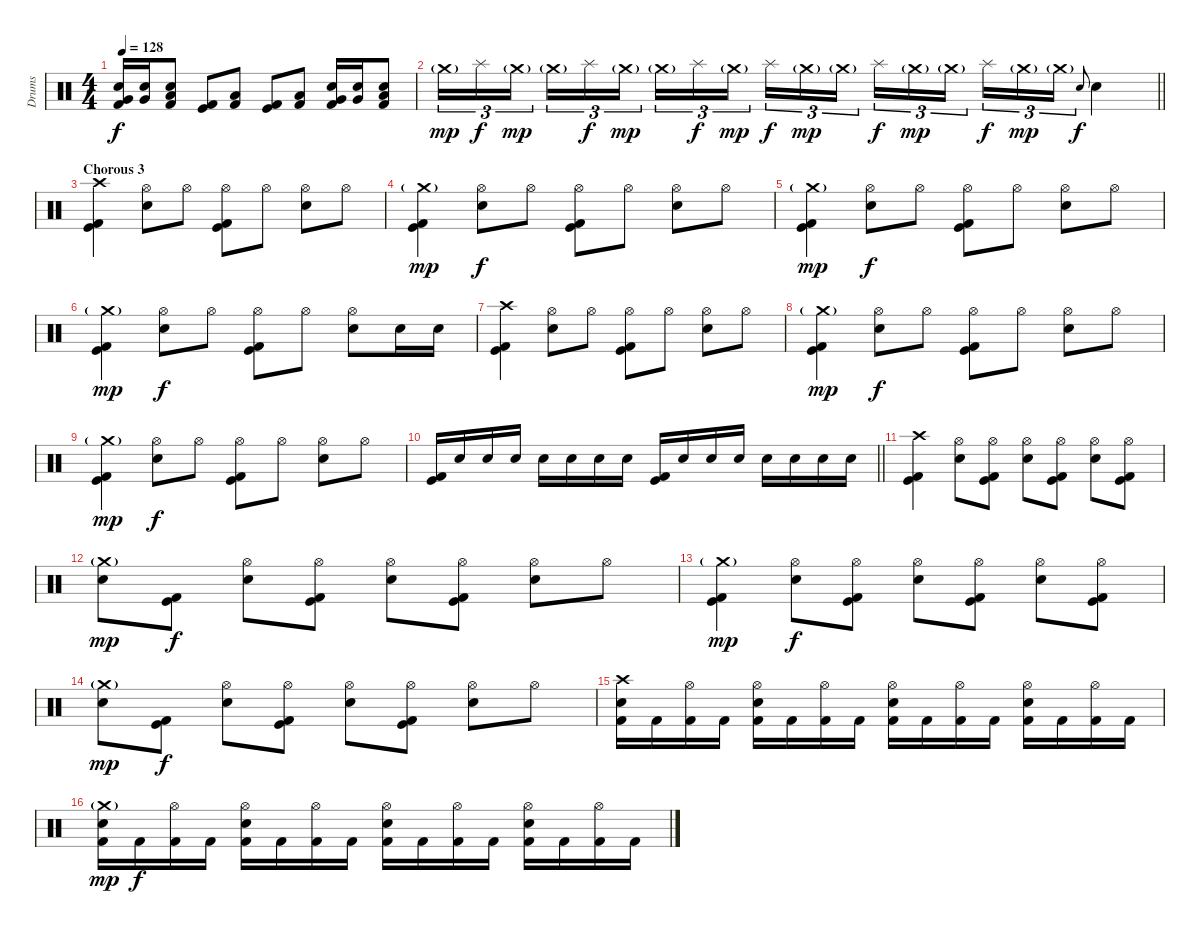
\track ("Drums" "Drums") {instrument percussion}
\staff {score}
\articulation defaults
\ts (4 4)
\tempo 128
\clef neutral
\ks c
("Kick (hit) 2" "Electric Snare (hit)" "Very Low Tom (hit)").16{dy f} ("Electric Snare (hit)" "Very Low Tom (hit)").16 ("Kick (hit) 2" "Electric Snare (hit)" "Low Floor Tom (hit)").8 ("Kick (hit) 2" "Kick (hit)").8 ("Kick (hit) 2" "Low Floor Tom (hit)").8 ("Kick (hit) 2" "Kick (hit)").8 ("Kick (hit) 2" "Low Floor Tom (hit)").8 ("Kick (hit) 2" "Electric Snare (hit)" "Very Low Tom (hit)").16 ("Electric Snare (hit)" "Very Low Tom (hit)").16 ("Kick (hit) 2" "Electric Snare (hit)" "Low Floor Tom (hit)").8 |
\barLineRight lightlight "Crash medium (hit)"{g}.16{tu (3 2) dy mp} "Splash (hit)".16{tu (3 2) dy f} "Crash medium (hit)"{g}.16{tu (3 2) dy mp beam splitsecondary} "Crash medium (hit)"{g}.16{tu (3 2)} "Splash (hit)".16{tu (3 2) dy f} "Crash medium (hit)"{g}.16{tu (3 2) dy mp} "Crash medium (hit)"{g}.16{tu (3 2)} "Splash (hit)".16{tu (3 2) dy f} "Crash medium (hit)"{g}.16{tu (3 2) dy mp beam splitsecondary} "Splash (hit)".16{tu (3 2) dy f} "Crash medium (hit)"{g}.16{tu (3 2) dy mp} "Crash medium (hit)"{g}.16{tu (3 2)} "Splash (hit)".16{tu (3 2) dy f} "Crash medium (hit)"{g}.16{tu (3 2) dy mp} "Crash medium (hit)"{g}.16{tu (3 2) beam splitsecondary} "Splash (hit)".16{tu (3 2) dy f} "Crash medium (hit)"{g}.16{tu (3 2) dy mp} "Crash medium (hit)"{g}.16{tu (3 2)} "Electric Snare (hit)".8{gr onbeat dy f} "Electric Snare (hit)".4
|
\section ("" "Chorous 3")
("Crash high (hit)" "Kick (hit)" "Kick (hit) 2").4 ("Hi-Hat (open)" "Electric Snare (hit)").8 "Hi-Hat (open)".8 ("Hi-Hat (open)" "Kick (hit)" "Kick (hit) 2").8 "Hi-Hat (open)".8 ("Hi-Hat (open)" "Electric Snare (hit)").8 "Hi-Hat (open)".8 |
("Crash medium (hit)"{g} "Kick (hit)" "Kick (hit) 2").4{dy mp} ("Hi-Hat (open)" "Electric Snare (hit)").8{dy f} "Hi-Hat (open)".8 ("Hi-Hat (open)" "Kick (hit)" "Kick (hit) 2").8 "Hi-Hat (open)".8 ("Hi-Hat (open)" "Electric Snare (hit)").8 "Hi-Hat (open)".8 |
("Crash medium (hit)"{g} "Kick (hit)" "Kick (hit) 2").4{dy mp} ("Hi-Hat (open)" "Electric Snare (hit)").8{dy f} "Hi-Hat (open)".8 ("Hi-Hat (open)" "Kick (hit)" "Kick (hit) 2").8 "Hi-Hat (open)".8 ("Hi-Hat (open)" "Electric Snare (hit)").8 "Hi-Hat (open)".8 |
("Crash medium (hit)"{g} "Kick (hit)" "Kick (hit) 2").4{dy mp} ("Hi-Hat (open)" "Electric Snare (hit)").8{dy f} "Hi-Hat (open)".8 ("Hi-Hat (open)" "Kick (hit)" "Kick (hit) 2").8 "Hi-Hat (open)".8 ("Hi-Hat (open)" "Electric Snare (hit)").8 "Electric Snare (hit)".16 "Electric Snare (hit)".16 |
("Crash high (hit)" "Kick (hit)" "Kick (hit) 2").4 ("Hi-Hat (open)" "Electric Snare (hit)").8 "Hi-Hat (open)".8 ("Hi-Hat (open)" "Kick (hit)" "Kick (hit) 2").8 "Hi-Hat (open)".8 ("Hi-Hat (open)" "Electric Snare (hit)").8 "Hi-Hat (open)".8 |
("Crash medium (hit)"{g} "Kick (hit)" "Kick (hit) 2").4{dy mp} ("Hi-Hat (open)" "Electric Snare (hit)").8{dy f} "Hi-Hat (open)".8 ("Hi-Hat (open)" "Kick (hit)" "Kick (hit) 2").8 "Hi-Hat (open)".8 ("Hi-Hat (open)" "Electric Snare (hit)").8 "Hi-Hat (open)".8 |
("Crash medium (hit)"{g} "Kick (hit)" "Kick (hit) 2").4{dy mp} ("Hi-Hat (open)" "Electric Snare (hit)").8{dy f} "Hi-Hat (open)".8 ("Hi-Hat (open)" "Kick (hit)" "Kick (hit) 2").8 "Hi-Hat (open)".8 ("Hi-Hat (open)" "Electric Snare (hit)").8 "Hi-Hat (open)".8 |
\barLineRight lightlight
("Kick (hit)" "Kick (hit) 2").16 "Electric Snare (hit)".16 "Electric Snare (hit)".16 "Electric Snare (hit)".16 "Electric Snare (hit)".16 "Electric Snare (hit)".16 "Electric Snare (hit)".16 "Electric Snare (hit)".16 ("Kick (hit)" "Kick (hit) 2").16 "Electric Snare (hit)".16 "Electric Snare (hit)".16 "Electric Snare (hit)".16 "Electric Snare (hit)".16 "Electric Snare (hit)".16 "Electric Snare (hit)".16 "Electric Snare (hit)".16 |
\section ("" "")
("Crash high (hit)" "Kick (hit)" "Kick (hit) 2").4 ("Hi-Hat (open)" "Electric Snare (hit)").8 ("Hi-Hat (open)" "Kick (hit)" "Kick (hit) 2").8 ("Hi-Hat (open)" "Electric Snare (hit)").8 ("Hi-Hat (open)" "Kick (hit)" "Kick (hit) 2").8 ("Hi-Hat (open)" "Electric Snare (hit)").8 ("Hi-Hat (open)" "Kick (hit)" "Kick (hit) 2").8 |
("Crash medium (hit)"{g} "Electric Snare (hit)").8{dy mp} ("Kick (hit)" "Kick (hit) 2").8{dy f} ("Hi-Hat (open)" "Electric Snare (hit)").8 ("Hi-Hat (open)" "Kick (hit)" "Kick (hit) 2").8 ("Hi-Hat (open)" "Electric Snare (hit)").8 ("Hi-Hat (open)" "Kick (hit)" "Kick (hit) 2").8 ("Hi-Hat (open)" "Electric Snare (hit)").8 "Hi-Hat (open)".8 |
("Crash medium (hit)"{g} "Kick (hit)" "Kick (hit) 2").4{dy mp} ("Hi-Hat (open)" "Electric Snare (hit)").8{dy f} ("Hi-Hat (open)" "Kick (hit)" "Kick (hit) 2").8 ("Hi-Hat (open)" "Electric Snare (hit)").8 ("Hi-Hat (open)" "Kick (hit)" "Kick (hit) 2").8 ("Hi-Hat (open)" "Electric Snare (hit)").8 ("Hi-Hat (open)" "Kick (hit)" "Kick (hit) 2").8 |
("Crash medium (hit)"{g} "Electric Snare (hit)").8{dy mp} ("Kick (hit)" "Kick (hit) 2").8{dy f} ("Hi-Hat (open)" "Electric Snare (hit)").8 ("Hi-Hat (open)" "Kick (hit)" "Kick (hit) 2").8 ("Hi-Hat (open)" "Electric Snare (hit)").8 ("Hi-Hat (open)" "Kick (hit)" "Kick (hit) 2").8 ("Hi-Hat (open)" "Electric Snare (hit)").8 "Hi-Hat (open)".8 |
("Crash high (hit)" "Electric Snare (hit)" "Kick (hit) 2").16 "Kick (hit) 2".16 ("Hi-Hat (open)" "Kick (hit) 2").16 "Kick (hit) 2".16 ("Hi-Hat (open)" "Electric Snare (hit)" "Kick (hit) 2").16 "Kick (hit) 2".16 ("Hi-Hat (open)" "Kick (hit) 2").16 "Kick (hit) 2".16 ("Hi-Hat (open)" "Electric Snare (hit)" "Kick (hit) 2").16 "Kick (hit) 2".16 ("Hi-Hat (open)" "Kick (hit) 2").16 "Kick (hit) 2".16 ("Hi-Hat (open)" "Electric Snare (hit)" "Kick (hit) 2").16 "Kick (hit) 2".16 ("Hi-Hat (open)" "Kick (hit) 2").16 "Kick (hit) 2".16 |
("Crash medium (hit)"{g} "Electric Snare (hit)" "Kick (hit) 2").16{dy mp} "Kick (hit) 2".16{dy f} ("Hi-Hat (open)" "Kick (hit) 2").16 "Kick (hit) 2".16 ("Hi-Hat (open)" "Electric Snare (hit)" "Kick (hit) 2").16 "Kick (hit) 2".16 ("Hi-Hat (open)" "Kick (hit) 2").16 "Kick (hit) 2".16 ("Hi-Hat (open)" "Electric Snare (hit)" "Kick (hit) 2").16 "Kick (hit) 2".16 ("Hi-Hat (open)" "Kick (hit) 2").16 "Kick (hit) 2".16 ("Hi-Hat (open)" "Electric Snare (hit)" "Kick (hit) 2").16 "Kick (hit) 2".16 ("Hi-Hat (open)" "Kick (hit) 2").16 "Kick (hit) 2".16
